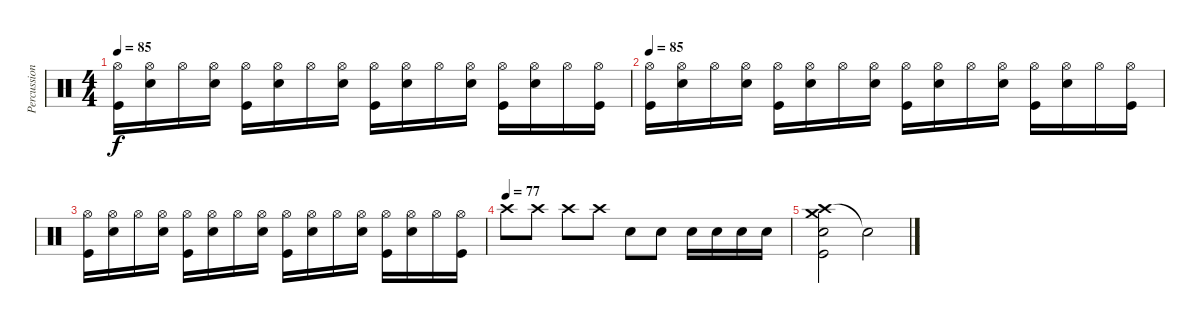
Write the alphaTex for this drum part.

\track ("Percussion" "Percussion") {instrument percussion}
\staff {score}
\articulation defaults
\ts (4 4)
\tempo 85
\clef neutral
\ks c
("Hi-Hat (open)" "Kick (hit)").16{dy f} ("Hi-Hat (open)" "Snare (hit) 2").16 "Hi-Hat (open)".16 ("Hi-Hat (open)" "Snare (hit) 2").16 ("Hi-Hat (open)" "Kick (hit)").16 ("Hi-Hat (open)" "Snare (hit) 2").16 "Hi-Hat (open)".16 ("Hi-Hat (open)" "Snare (hit) 2").16 ("Hi-Hat (open)" "Kick (hit)").16 ("Hi-Hat (open)" "Snare (hit) 2").16 "Hi-Hat (open)".16 ("Hi-Hat (open)" "Snare (hit) 2").16 ("Hi-Hat (open)" "Kick (hit)").16 ("Hi-Hat (open)" "Snare (hit) 2").16 "Hi-Hat (open)".16 ("Hi-Hat (open)" "Kick (hit)").16 |
\tempo 85
("Hi-Hat (open)" "Kick (hit)").16 ("Hi-Hat (open)" "Snare (hit) 2").16 "Hi-Hat (open)".16 ("Hi-Hat (open)" "Snare (hit) 2").16 ("Hi-Hat (open)" "Kick (hit)").16 ("Hi-Hat (open)" "Snare (hit) 2").16 "Hi-Hat (open)".16 ("Hi-Hat (open)" "Snare (hit) 2").16 ("Hi-Hat (open)" "Kick (hit)").16 ("Hi-Hat (open)" "Snare (hit) 2").16 "Hi-Hat (open)".16 ("Hi-Hat (open)" "Snare (hit) 2").16 ("Hi-Hat (open)" "Kick (hit)").16 ("Hi-Hat (open)" "Snare (hit) 2").16 "Hi-Hat (open)".16 ("Hi-Hat (open)" "Kick (hit)").16 |
("Hi-Hat (open)" "Kick (hit)").16 ("Hi-Hat (open)" "Snare (hit) 2").16 "Hi-Hat (open)".16 ("Hi-Hat (open)" "Snare (hit) 2").16 ("Hi-Hat (open)" "Kick (hit)").16 ("Hi-Hat (open)" "Snare (hit) 2").16 "Hi-Hat (open)".16 ("Hi-Hat (open)" "Snare (hit) 2").16 ("Hi-Hat (open)" "Kick (hit)").16 ("Hi-Hat (open)" "Snare (hit) 2").16 "Hi-Hat (open)".16 ("Hi-Hat (open)" "Snare (hit) 2").16 ("Hi-Hat (open)" "Kick (hit)").16 ("Hi-Hat (open)" "Snare (hit) 2").16 "Hi-Hat (open)".16 ("Hi-Hat (open)" "Kick (hit)").16 |
\tempo (77)
"Crash high (hit)".8 "Crash high (hit)".8 "Crash high (hit)".8 "Crash high (hit)".8 "Snare (hit) 2".8 "Snare (hit) 2".8 "Snare (hit) 2".16 "Snare (hit) 2".16 "Snare (hit) 2".16 "Snare (hit) 2".16 |
("Crash high (hit)" "Crash medium (hit)" "Kick (hit)" "Snare (hit) 2").2 "Snare (hit)"{t}.2
